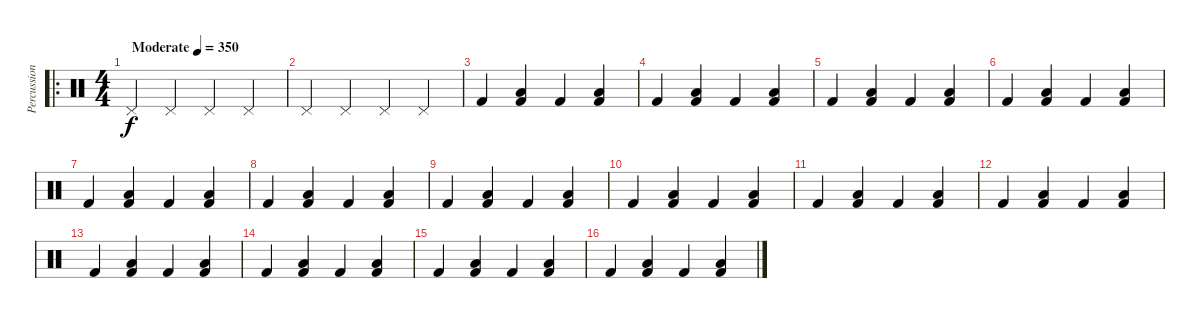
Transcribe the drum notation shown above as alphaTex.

\track ("Percussion" "Percussion") {instrument percussion}
\staff {score}
\articulation defaults
\ro
\ts (4 4)
\tempo (350 "Moderate")
\clef neutral
\ks c "Pedal Hi-Hat (hit)".4{dy f} "Pedal Hi-Hat (hit)".4 "Pedal Hi-Hat (hit)".4 "Pedal Hi-Hat (hit)".4
|
"Pedal Hi-Hat (hit)".4 "Pedal Hi-Hat (hit)".4 "Pedal Hi-Hat (hit)".4 "Pedal Hi-Hat (hit)".4 |
"Kick (hit) 2".4 ("Low Tom (hit)" "Kick (hit) 2").4 "Kick (hit) 2".4 ("Low Tom (hit)" "Kick (hit) 2").4 |
"Kick (hit) 2".4 ("Low Tom (hit)" "Kick (hit) 2").4 "Kick (hit) 2".4 ("Low Tom (hit)" "Kick (hit) 2").4 |
"Kick (hit) 2".4 ("Low Tom (hit)" "Kick (hit) 2").4 "Kick (hit) 2".4 ("Low Tom (hit)" "Kick (hit) 2").4 |
"Kick (hit) 2".4 ("Low Tom (hit)" "Kick (hit) 2").4 "Kick (hit) 2".4 ("Low Tom (hit)" "Kick (hit) 2").4 |
"Kick (hit) 2".4 ("Low Tom (hit)" "Kick (hit) 2").4 "Kick (hit) 2".4 ("Low Tom (hit)" "Kick (hit) 2").4 |
"Kick (hit) 2".4 ("Low Tom (hit)" "Kick (hit) 2").4 "Kick (hit) 2".4 ("Low Tom (hit)" "Kick (hit) 2").4 |
"Kick (hit) 2".4 ("Low Tom (hit)" "Kick (hit) 2").4 "Kick (hit) 2".4 ("Low Tom (hit)" "Kick (hit) 2").4 |
"Kick (hit) 2".4 ("Low Tom (hit)" "Kick (hit) 2").4 "Kick (hit) 2".4 ("Low Tom (hit)" "Kick (hit) 2").4 |
"Kick (hit) 2".4 ("Low Tom (hit)" "Kick (hit) 2").4 "Kick (hit) 2".4 ("Low Tom (hit)" "Kick (hit) 2").4 |
"Kick (hit) 2".4 ("Low Tom (hit)" "Kick (hit) 2").4 "Kick (hit) 2".4 ("Low Tom (hit)" "Kick (hit) 2").4 |
"Kick (hit) 2".4 ("Low Tom (hit)" "Kick (hit) 2").4 "Kick (hit) 2".4 ("Low Tom (hit)" "Kick (hit) 2").4 |
"Kick (hit) 2".4 ("Low Tom (hit)" "Kick (hit) 2").4 "Kick (hit) 2".4 ("Low Tom (hit)" "Kick (hit) 2").4 |
"Kick (hit) 2".4 ("Low Tom (hit)" "Kick (hit) 2").4 "Kick (hit) 2".4 ("Low Tom (hit)" "Kick (hit) 2").4 |
"Kick (hit) 2".4 ("Low Tom (hit)" "Kick (hit) 2").4 "Kick (hit) 2".4 ("Low Tom (hit)" "Kick (hit) 2").4
